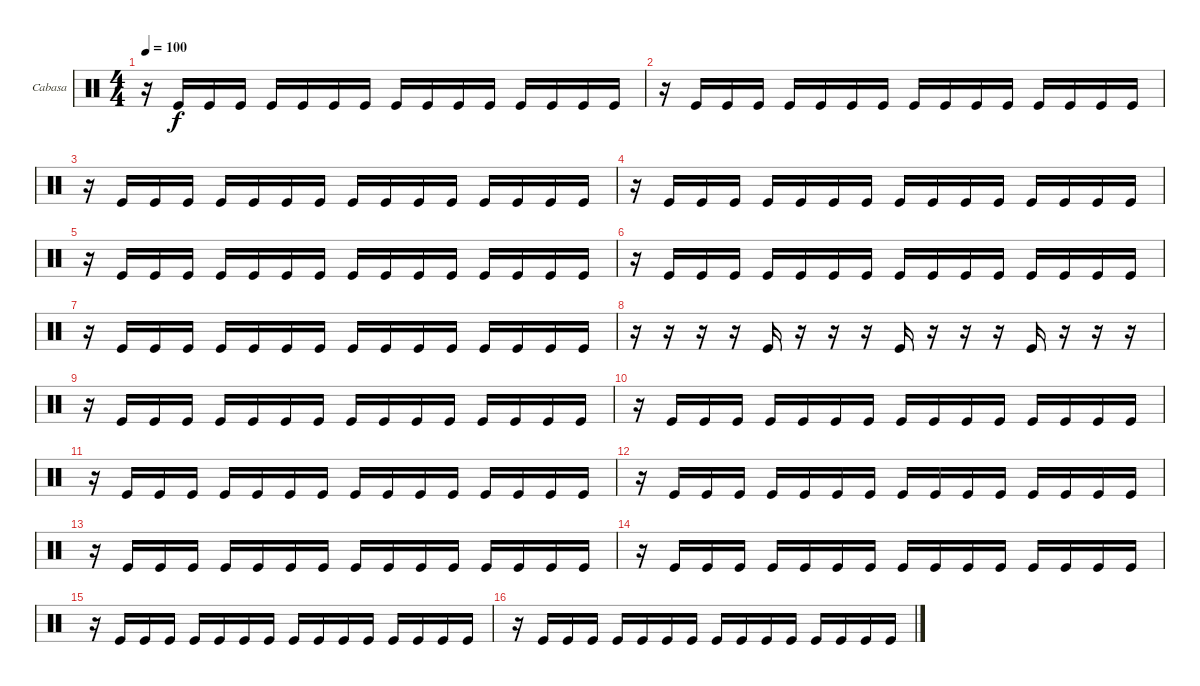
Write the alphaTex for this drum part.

\bracketExtendMode groupsimilarinstruments
\firstSystemTrackNameOrientation horizontal
\otherSystemsTrackNameOrientation horizontal
\track ("Cabasa" "Cabasa") {instrument percussion}
\staff {score}
\articulation defaults
\ts (4 4)
\tempo 100
\clef neutral
\ks c
r.16{dy f} "Kick (hit)".16 "Kick (hit)".16 "Kick (hit)".16 "Kick (hit)".16 "Kick (hit)".16 "Kick (hit)".16 "Kick (hit)".16 "Kick (hit)".16 "Kick (hit)".16 "Kick (hit)".16 "Kick (hit)".16 "Kick (hit)".16 "Kick (hit)".16 "Kick (hit)".16 "Kick (hit)".16 |
r.16 "Kick (hit)".16 "Kick (hit)".16 "Kick (hit)".16 "Kick (hit)".16 "Kick (hit)".16 "Kick (hit)".16 "Kick (hit)".16 "Kick (hit)".16 "Kick (hit)".16 "Kick (hit)".16 "Kick (hit)".16 "Kick (hit)".16 "Kick (hit)".16 "Kick (hit)".16 "Kick (hit)".16 |
r.16 "Kick (hit)".16 "Kick (hit)".16 "Kick (hit)".16 "Kick (hit)".16 "Kick (hit)".16 "Kick (hit)".16 "Kick (hit)".16 "Kick (hit)".16 "Kick (hit)".16 "Kick (hit)".16 "Kick (hit)".16 "Kick (hit)".16 "Kick (hit)".16 "Kick (hit)".16 "Kick (hit)".16 |
r.16 "Kick (hit)".16 "Kick (hit)".16 "Kick (hit)".16 "Kick (hit)".16 "Kick (hit)".16 "Kick (hit)".16 "Kick (hit)".16 "Kick (hit)".16 "Kick (hit)".16 "Kick (hit)".16 "Kick (hit)".16 "Kick (hit)".16 "Kick (hit)".16 "Kick (hit)".16 "Kick (hit)".16 |
r.16 "Kick (hit)".16 "Kick (hit)".16 "Kick (hit)".16 "Kick (hit)".16 "Kick (hit)".16 "Kick (hit)".16 "Kick (hit)".16 "Kick (hit)".16 "Kick (hit)".16 "Kick (hit)".16 "Kick (hit)".16 "Kick (hit)".16 "Kick (hit)".16 "Kick (hit)".16 "Kick (hit)".16 |
r.16 "Kick (hit)".16 "Kick (hit)".16 "Kick (hit)".16 "Kick (hit)".16 "Kick (hit)".16 "Kick (hit)".16 "Kick (hit)".16 "Kick (hit)".16 "Kick (hit)".16 "Kick (hit)".16 "Kick (hit)".16 "Kick (hit)".16 "Kick (hit)".16 "Kick (hit)".16 "Kick (hit)".16 |
r.16 "Kick (hit)".16 "Kick (hit)".16 "Kick (hit)".16 "Kick (hit)".16 "Kick (hit)".16 "Kick (hit)".16 "Kick (hit)".16 "Kick (hit)".16 "Kick (hit)".16 "Kick (hit)".16 "Kick (hit)".16 "Kick (hit)".16 "Kick (hit)".16 "Kick (hit)".16 "Kick (hit)".16 |
r.16 r.16 r.16 r.16 "Kick (hit)".16 r.16 r.16 r.16 "Kick (hit)".16 r.16 r.16 r.16 "Kick (hit)".16 r.16 r.16 r.16 |
r.16 "Kick (hit)".16 "Kick (hit)".16 "Kick (hit)".16 "Kick (hit)".16 "Kick (hit)".16 "Kick (hit)".16 "Kick (hit)".16 "Kick (hit)".16 "Kick (hit)".16 "Kick (hit)".16 "Kick (hit)".16 "Kick (hit)".16 "Kick (hit)".16 "Kick (hit)".16 "Kick (hit)".16 |
r.16 "Kick (hit)".16 "Kick (hit)".16 "Kick (hit)".16 "Kick (hit)".16 "Kick (hit)".16 "Kick (hit)".16 "Kick (hit)".16 "Kick (hit)".16 "Kick (hit)".16 "Kick (hit)".16 "Kick (hit)".16 "Kick (hit)".16 "Kick (hit)".16 "Kick (hit)".16 "Kick (hit)".16 |
r.16 "Kick (hit)".16 "Kick (hit)".16 "Kick (hit)".16 "Kick (hit)".16 "Kick (hit)".16 "Kick (hit)".16 "Kick (hit)".16 "Kick (hit)".16 "Kick (hit)".16 "Kick (hit)".16 "Kick (hit)".16 "Kick (hit)".16 "Kick (hit)".16 "Kick (hit)".16 "Kick (hit)".16 |
r.16 "Kick (hit)".16 "Kick (hit)".16 "Kick (hit)".16 "Kick (hit)".16 "Kick (hit)".16 "Kick (hit)".16 "Kick (hit)".16 "Kick (hit)".16 "Kick (hit)".16 "Kick (hit)".16 "Kick (hit)".16 "Kick (hit)".16 "Kick (hit)".16 "Kick (hit)".16 "Kick (hit)".16 |
r.16 "Kick (hit)".16 "Kick (hit)".16 "Kick (hit)".16 "Kick (hit)".16 "Kick (hit)".16 "Kick (hit)".16 "Kick (hit)".16 "Kick (hit)".16 "Kick (hit)".16 "Kick (hit)".16 "Kick (hit)".16 "Kick (hit)".16 "Kick (hit)".16 "Kick (hit)".16 "Kick (hit)".16 |
r.16 "Kick (hit)".16 "Kick (hit)".16 "Kick (hit)".16 "Kick (hit)".16 "Kick (hit)".16 "Kick (hit)".16 "Kick (hit)".16 "Kick (hit)".16 "Kick (hit)".16 "Kick (hit)".16 "Kick (hit)".16 "Kick (hit)".16 "Kick (hit)".16 "Kick (hit)".16 "Kick (hit)".16 |
r.16 "Kick (hit)".16 "Kick (hit)".16 "Kick (hit)".16 "Kick (hit)".16 "Kick (hit)".16 "Kick (hit)".16 "Kick (hit)".16 "Kick (hit)".16 "Kick (hit)".16 "Kick (hit)".16 "Kick (hit)".16 "Kick (hit)".16 "Kick (hit)".16 "Kick (hit)".16 "Kick (hit)".16 |
r.16 "Kick (hit)".16 "Kick (hit)".16 "Kick (hit)".16 "Kick (hit)".16 "Kick (hit)".16 "Kick (hit)".16 "Kick (hit)".16 "Kick (hit)".16 "Kick (hit)".16 "Kick (hit)".16 "Kick (hit)".16 "Kick (hit)".16 "Kick (hit)".16 "Kick (hit)".16 "Kick (hit)".16
